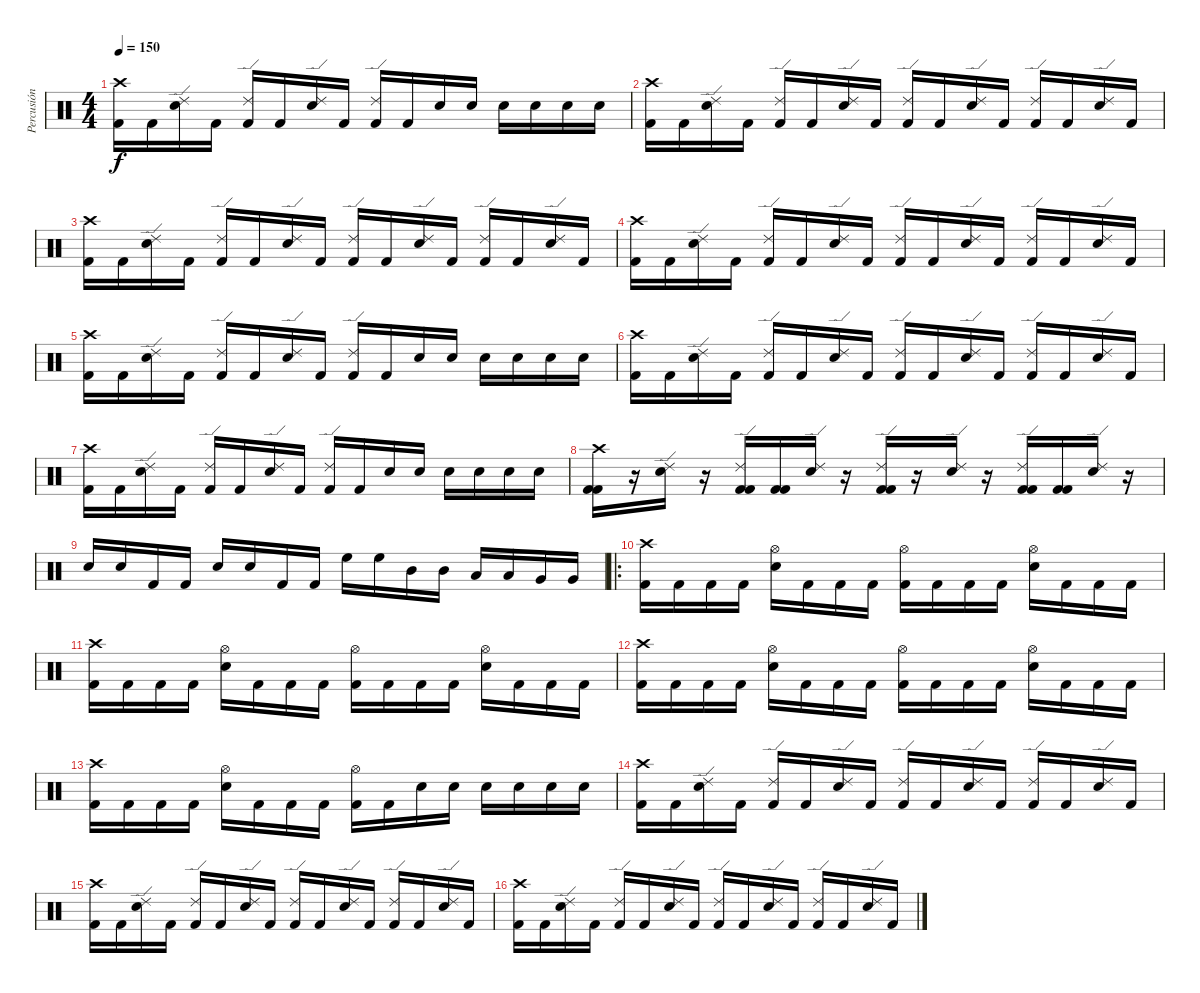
\track ("Percusión" "Percusión") {instrument percussion}
\staff {score}
\articulation defaults
\ts (4 4)
\tempo 150
\clef neutral
\ks c
("Crash high (hit)" "Kick (hit) 2").16{dy f} "Kick (hit) 2".16 ("Ride (edge) 2" "Electric Snare (hit)").16 "Kick (hit) 2".16 ("Ride (edge) 2" "Kick (hit) 2").16 "Kick (hit) 2".16 ("Ride (edge) 2" "Electric Snare (hit)").16 "Kick (hit) 2".16 ("Ride (edge) 2" "Kick (hit) 2").16 "Kick (hit) 2".16 "Electric Snare (hit)".16 "Electric Snare (hit)".16 "Electric Snare (hit)".16 "Electric Snare (hit)".16 "Electric Snare (hit)".16 "Electric Snare (hit)".16 |
("Crash high (hit)" "Kick (hit) 2").16 "Kick (hit) 2".16 ("Ride (edge) 2" "Electric Snare (hit)").16 "Kick (hit) 2".16 ("Ride (edge) 2" "Kick (hit) 2").16 "Kick (hit) 2".16 ("Ride (edge) 2" "Electric Snare (hit)").16 "Kick (hit) 2".16 ("Ride (edge) 2" "Kick (hit) 2").16 "Kick (hit) 2".16 ("Ride (edge) 2" "Electric Snare (hit)").16 "Kick (hit) 2".16 ("Ride (edge) 2" "Kick (hit) 2").16 "Kick (hit) 2".16 ("Ride (edge) 2" "Electric Snare (hit)").16 "Kick (hit) 2".16 |
("Crash high (hit)" "Kick (hit) 2").16 "Kick (hit) 2".16 ("Ride (edge) 2" "Electric Snare (hit)").16 "Kick (hit) 2".16 ("Ride (edge) 2" "Kick (hit) 2").16 "Kick (hit) 2".16 ("Ride (edge) 2" "Electric Snare (hit)").16 "Kick (hit) 2".16 ("Ride (edge) 2" "Kick (hit) 2").16 "Kick (hit) 2".16 ("Ride (edge) 2" "Electric Snare (hit)").16 "Kick (hit) 2".16 ("Ride (edge) 2" "Kick (hit) 2").16 "Kick (hit) 2".16 ("Ride (edge) 2" "Electric Snare (hit)").16 "Kick (hit) 2".16 |
("Crash high (hit)" "Kick (hit) 2").16 "Kick (hit) 2".16 ("Ride (edge) 2" "Electric Snare (hit)").16 "Kick (hit) 2".16 ("Ride (edge) 2" "Kick (hit) 2").16 "Kick (hit) 2".16 ("Ride (edge) 2" "Electric Snare (hit)").16 "Kick (hit) 2".16 ("Ride (edge) 2" "Kick (hit) 2").16 "Kick (hit) 2".16 ("Ride (edge) 2" "Electric Snare (hit)").16 "Kick (hit) 2".16 ("Ride (edge) 2" "Kick (hit) 2").16 "Kick (hit) 2".16 ("Ride (edge) 2" "Electric Snare (hit)").16 "Kick (hit) 2".16 |
("Crash high (hit)" "Kick (hit) 2").16 "Kick (hit) 2".16 ("Ride (edge) 2" "Electric Snare (hit)").16 "Kick (hit) 2".16 ("Ride (edge) 2" "Kick (hit) 2").16 "Kick (hit) 2".16 ("Ride (edge) 2" "Electric Snare (hit)").16 "Kick (hit) 2".16 ("Ride (edge) 2" "Kick (hit) 2").16 "Kick (hit) 2".16 "Electric Snare (hit)".16 "Electric Snare (hit)".16 "Electric Snare (hit)".16 "Electric Snare (hit)".16 "Electric Snare (hit)".16 "Electric Snare (hit)".16 |
("Crash high (hit)" "Kick (hit) 2").16 "Kick (hit) 2".16 ("Ride (edge) 2" "Electric Snare (hit)").16 "Kick (hit) 2".16 ("Ride (edge) 2" "Kick (hit) 2").16 "Kick (hit) 2".16 ("Ride (edge) 2" "Electric Snare (hit)").16 "Kick (hit) 2".16 ("Ride (edge) 2" "Kick (hit) 2").16 "Kick (hit) 2".16 ("Ride (edge) 2" "Electric Snare (hit)").16 "Kick (hit) 2".16 ("Ride (edge) 2" "Kick (hit) 2").16 "Kick (hit) 2".16 ("Ride (edge) 2" "Electric Snare (hit)").16 "Kick (hit) 2".16 |
("Crash high (hit)" "Kick (hit) 2").16 "Kick (hit) 2".16 ("Ride (edge) 2" "Electric Snare (hit)").16 "Kick (hit) 2".16 ("Ride (edge) 2" "Kick (hit) 2").16 "Kick (hit) 2".16 ("Ride (edge) 2" "Electric Snare (hit)").16 "Kick (hit) 2".16 ("Ride (edge) 2" "Kick (hit) 2").16 "Kick (hit) 2".16 "Electric Snare (hit)".16 "Electric Snare (hit)".16 "Electric Snare (hit)".16 "Electric Snare (hit)".16 "Electric Snare (hit)".16 "Electric Snare (hit)".16 |
("Crash high (hit)" "Kick (hit) 2" "Kick (hit) 2").16 r.16 ("Ride (edge) 2" "Electric Snare (hit)").16 r.16 ("Ride (edge) 2" "Kick (hit) 2" "Kick (hit) 2").16 ("Kick (hit) 2" "Kick (hit) 2").16 ("Ride (edge) 2" "Electric Snare (hit)").16 r.16 ("Ride (edge) 2" "Kick (hit) 2" "Kick (hit) 2").16 r.16 ("Ride (edge) 2" "Electric Snare (hit)").16 r.16 ("Ride (edge) 2" "Kick (hit) 2" "Kick (hit) 2").16 ("Kick (hit) 2" "Kick (hit) 2").16 ("Ride (edge) 2" "Electric Snare (hit)").16 r.16 |
"Electric Snare (hit)".16 "Electric Snare (hit)".16 "Kick (hit) 2".16 "Kick (hit) 2".16 "Electric Snare (hit)".16 "Electric Snare (hit)".16 "Kick (hit) 2".16 "Kick (hit) 2".16 "High Floor Tom (hit)".16 "High Floor Tom (hit)".16 "Mid Tom (hit)".16 "Mid Tom (hit)".16 "Low Tom (hit)".16 "Low Tom (hit)".16 "Very Low Tom (hit)".16 "Very Low Tom (hit)".16 |
\ro
("Crash high (hit)" "Kick (hit) 2").16 "Kick (hit) 2".16 "Kick (hit) 2".16 "Kick (hit) 2".16 ("Hi-Hat (open)" "Electric Snare (hit)").16 "Kick (hit) 2".16 "Kick (hit) 2".16 "Kick (hit) 2".16 ("Hi-Hat (open)" "Kick (hit) 2").16 "Kick (hit) 2".16 "Kick (hit) 2".16 "Kick (hit) 2".16 ("Hi-Hat (open)" "Electric Snare (hit)").16 "Kick (hit) 2".16 "Kick (hit) 2".16 "Kick (hit) 2".16 |
("Crash high (hit)" "Kick (hit) 2").16 "Kick (hit) 2".16 "Kick (hit) 2".16 "Kick (hit) 2".16 ("Hi-Hat (open)" "Electric Snare (hit)").16 "Kick (hit) 2".16 "Kick (hit) 2".16 "Kick (hit) 2".16 ("Hi-Hat (open)" "Kick (hit) 2").16 "Kick (hit) 2".16 "Kick (hit) 2".16 "Kick (hit) 2".16 ("Hi-Hat (open)" "Electric Snare (hit)").16 "Kick (hit) 2".16 "Kick (hit) 2".16 "Kick (hit) 2".16 |
("Crash high (hit)" "Kick (hit) 2").16 "Kick (hit) 2".16 "Kick (hit) 2".16 "Kick (hit) 2".16 ("Hi-Hat (open)" "Electric Snare (hit)").16 "Kick (hit) 2".16 "Kick (hit) 2".16 "Kick (hit) 2".16 ("Hi-Hat (open)" "Kick (hit) 2").16 "Kick (hit) 2".16 "Kick (hit) 2".16 "Kick (hit) 2".16 ("Hi-Hat (open)" "Electric Snare (hit)").16 "Kick (hit) 2".16 "Kick (hit) 2".16 "Kick (hit) 2".16 |
("Crash high (hit)" "Kick (hit) 2").16 "Kick (hit) 2".16 "Kick (hit) 2".16 "Kick (hit) 2".16 ("Hi-Hat (open)" "Electric Snare (hit)").16 "Kick (hit) 2".16 "Kick (hit) 2".16 "Kick (hit) 2".16 ("Hi-Hat (open)" "Kick (hit) 2").16 "Kick (hit) 2".16 "Electric Snare (hit)".16 "Electric Snare (hit)".16 "Electric Snare (hit)".16 "Electric Snare (hit)".16 "Electric Snare (hit)".16 "Electric Snare (hit)".16 |
("Crash high (hit)" "Kick (hit) 2").16 "Kick (hit) 2".16 ("Ride (edge) 2" "Electric Snare (hit)").16 "Kick (hit) 2".16 ("Ride (edge) 2" "Kick (hit) 2").16 "Kick (hit) 2".16 ("Ride (edge) 2" "Electric Snare (hit)").16 "Kick (hit) 2".16 ("Ride (edge) 2" "Kick (hit) 2").16 "Kick (hit) 2".16 ("Ride (edge) 2" "Electric Snare (hit)").16 "Kick (hit) 2".16 ("Ride (edge) 2" "Kick (hit) 2").16 "Kick (hit) 2".16 ("Ride (edge) 2" "Electric Snare (hit)").16 "Kick (hit) 2".16 |
("Crash high (hit)" "Kick (hit) 2").16 "Kick (hit) 2".16 ("Ride (edge) 2" "Electric Snare (hit)").16 "Kick (hit) 2".16 ("Ride (edge) 2" "Kick (hit) 2").16 "Kick (hit) 2".16 ("Ride (edge) 2" "Electric Snare (hit)").16 "Kick (hit) 2".16 ("Ride (edge) 2" "Kick (hit) 2").16 "Kick (hit) 2".16 ("Ride (edge) 2" "Electric Snare (hit)").16 "Kick (hit) 2".16 ("Ride (edge) 2" "Kick (hit) 2").16 "Kick (hit) 2".16 ("Ride (edge) 2" "Electric Snare (hit)").16 "Kick (hit) 2".16 |
("Crash high (hit)" "Kick (hit) 2").16 "Kick (hit) 2".16 ("Ride (edge) 2" "Electric Snare (hit)").16 "Kick (hit) 2".16 ("Ride (edge) 2" "Kick (hit) 2").16 "Kick (hit) 2".16 ("Ride (edge) 2" "Electric Snare (hit)").16 "Kick (hit) 2".16 ("Ride (edge) 2" "Kick (hit) 2").16 "Kick (hit) 2".16 ("Ride (edge) 2" "Electric Snare (hit)").16 "Kick (hit) 2".16 ("Ride (edge) 2" "Kick (hit) 2").16 "Kick (hit) 2".16 ("Ride (edge) 2" "Electric Snare (hit)").16 "Kick (hit) 2".16
